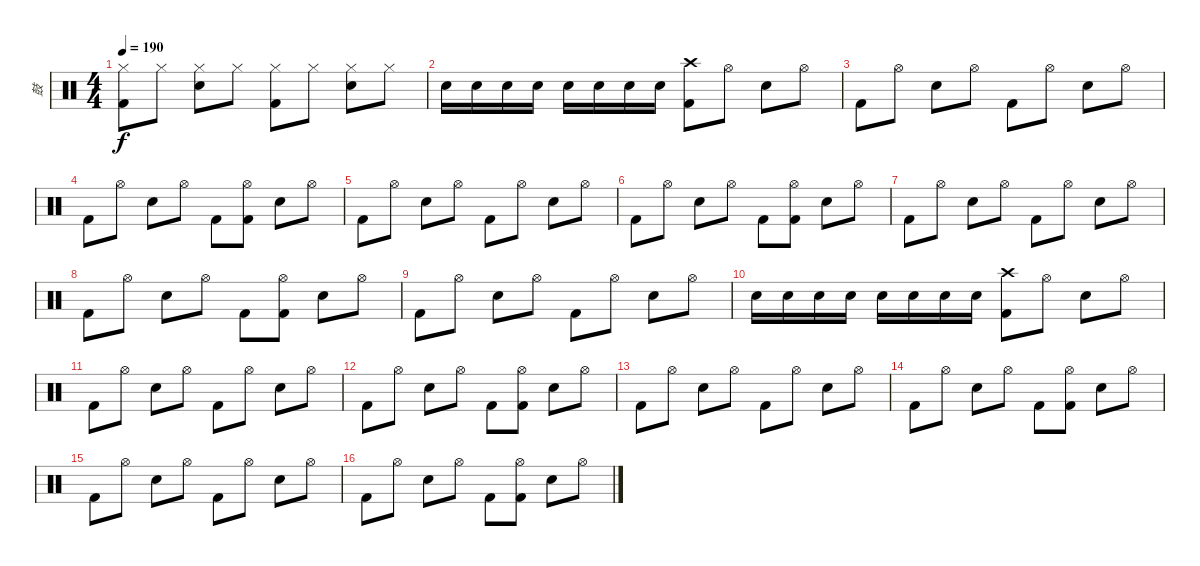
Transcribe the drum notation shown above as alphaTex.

\track ("鼓" "鼓") {instrument percussion}
\staff {score}
\articulation defaults
\ts (4 4)
\tempo 190
\clef neutral
\ks c
("Hi-Hat (closed)" "Kick (hit) 2").8{dy f} "Hi-Hat (closed)".8 ("Hi-Hat (closed)" "Snare (hit) 2").8 "Hi-Hat (closed)".8 ("Hi-Hat (closed)" "Kick (hit) 2").8 "Hi-Hat (closed)".8 ("Hi-Hat (closed)" "Snare (hit) 2").8 "Hi-Hat (closed)".8 |
"Snare (hit) 2".16 "Snare (hit) 2".16 "Snare (hit) 2".16 "Snare (hit) 2".16 "Snare (hit) 2".16 "Snare (hit) 2".16 "Snare (hit) 2".16 "Snare (hit) 2".16 ("Crash high (hit)" "Kick (hit) 2").8 "Hi-Hat (open)".8 "Snare (hit) 2".8 "Hi-Hat (open)".8 |
"Kick (hit) 2".8 "Hi-Hat (open)".8 "Snare (hit) 2".8 "Hi-Hat (open)".8 "Kick (hit) 2".8 "Hi-Hat (open)".8 "Snare (hit) 2".8 "Hi-Hat (open)".8 |
"Kick (hit) 2".8 "Hi-Hat (open)".8 "Snare (hit) 2".8 "Hi-Hat (open)".8 "Kick (hit) 2".8 ("Hi-Hat (open)" "Kick (hit) 2").8 "Snare (hit) 2".8 "Hi-Hat (open)".8 |
"Kick (hit) 2".8 "Hi-Hat (open)".8 "Snare (hit) 2".8 "Hi-Hat (open)".8 "Kick (hit) 2".8 "Hi-Hat (open)".8 "Snare (hit) 2".8 "Hi-Hat (open)".8 |
"Kick (hit) 2".8 "Hi-Hat (open)".8 "Snare (hit) 2".8 "Hi-Hat (open)".8 "Kick (hit) 2".8 ("Hi-Hat (open)" "Kick (hit) 2").8 "Snare (hit) 2".8 "Hi-Hat (open)".8 |
"Kick (hit) 2".8 "Hi-Hat (open)".8 "Snare (hit) 2".8 "Hi-Hat (open)".8 "Kick (hit) 2".8 "Hi-Hat (open)".8 "Snare (hit) 2".8 "Hi-Hat (open)".8 |
"Kick (hit) 2".8 "Hi-Hat (open)".8 "Snare (hit) 2".8 "Hi-Hat (open)".8 "Kick (hit) 2".8 ("Hi-Hat (open)" "Kick (hit) 2").8 "Snare (hit) 2".8 "Hi-Hat (open)".8 |
"Kick (hit) 2".8 "Hi-Hat (open)".8 "Snare (hit) 2".8 "Hi-Hat (open)".8 "Kick (hit) 2".8 "Hi-Hat (open)".8 "Snare (hit) 2".8 "Hi-Hat (open)".8 |
"Snare (hit) 2".16 "Snare (hit) 2".16 "Snare (hit) 2".16 "Snare (hit) 2".16 "Snare (hit) 2".16 "Snare (hit) 2".16 "Snare (hit) 2".16 "Snare (hit) 2".16 ("Crash high (hit)" "Kick (hit) 2").8 "Hi-Hat (open)".8 "Snare (hit) 2".8 "Hi-Hat (open)".8 |
"Kick (hit) 2".8 "Hi-Hat (open)".8 "Snare (hit) 2".8 "Hi-Hat (open)".8 "Kick (hit) 2".8 "Hi-Hat (open)".8 "Snare (hit) 2".8 "Hi-Hat (open)".8 |
"Kick (hit) 2".8 "Hi-Hat (open)".8 "Snare (hit) 2".8 "Hi-Hat (open)".8 "Kick (hit) 2".8 ("Hi-Hat (open)" "Kick (hit) 2").8 "Snare (hit) 2".8 "Hi-Hat (open)".8 |
"Kick (hit) 2".8 "Hi-Hat (open)".8 "Snare (hit) 2".8 "Hi-Hat (open)".8 "Kick (hit) 2".8 "Hi-Hat (open)".8 "Snare (hit) 2".8 "Hi-Hat (open)".8 |
"Kick (hit) 2".8 "Hi-Hat (open)".8 "Snare (hit) 2".8 "Hi-Hat (open)".8 "Kick (hit) 2".8 ("Hi-Hat (open)" "Kick (hit) 2").8 "Snare (hit) 2".8 "Hi-Hat (open)".8 |
"Kick (hit) 2".8 "Hi-Hat (open)".8 "Snare (hit) 2".8 "Hi-Hat (open)".8 "Kick (hit) 2".8 "Hi-Hat (open)".8 "Snare (hit) 2".8 "Hi-Hat (open)".8 |
"Kick (hit) 2".8 "Hi-Hat (open)".8 "Snare (hit) 2".8 "Hi-Hat (open)".8 "Kick (hit) 2".8 ("Hi-Hat (open)" "Kick (hit) 2").8 "Snare (hit) 2".8 "Hi-Hat (open)".8
